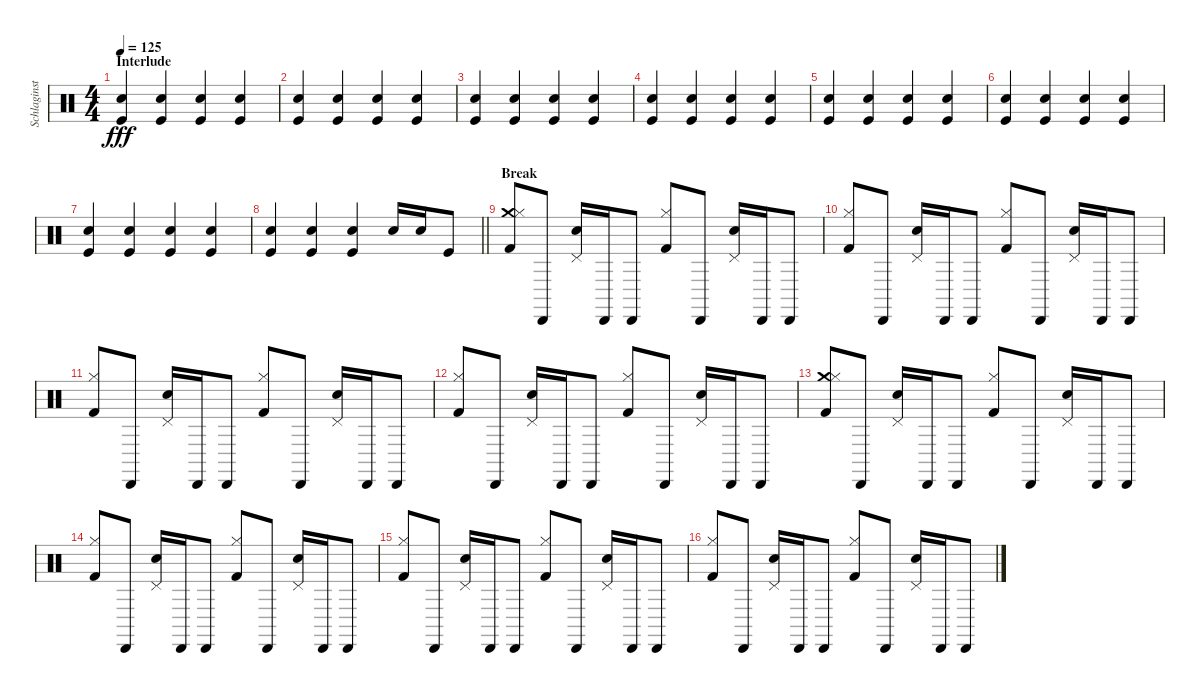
\track ("Schlaginstrumente - Auswahl" "Schlaginst") {instrument percussion}
\staff {score}
\articulation defaults
\ts (4 4)
\section ("" "Interlude")
\tempo 125
\clef neutral
\ks c
("Hand Clap (hit)" "Kick (hit)").4{dy fff} ("Hand Clap (hit)" "Kick (hit)").4 ("Hand Clap (hit)" "Kick (hit)").4 ("Hand Clap (hit)" "Kick (hit)").4 |
("Hand Clap (hit)" "Kick (hit)").4 ("Hand Clap (hit)" "Kick (hit)").4 ("Hand Clap (hit)" "Kick (hit)").4 ("Hand Clap (hit)" "Kick (hit)").4 |
("Hand Clap (hit)" "Kick (hit)").4 ("Hand Clap (hit)" "Kick (hit)").4 ("Hand Clap (hit)" "Kick (hit)").4 ("Hand Clap (hit)" "Kick (hit)").4 |
("Hand Clap (hit)" "Kick (hit)").4 ("Hand Clap (hit)" "Kick (hit)").4 ("Hand Clap (hit)" "Kick (hit)").4 ("Hand Clap (hit)" "Kick (hit)").4 |
("Hand Clap (hit)" "Kick (hit)").4 ("Hand Clap (hit)" "Kick (hit)").4 ("Hand Clap (hit)" "Kick (hit)").4 ("Hand Clap (hit)" "Kick (hit)").4 |
("Hand Clap (hit)" "Kick (hit)").4 ("Hand Clap (hit)" "Kick (hit)").4 ("Hand Clap (hit)" "Kick (hit)").4 ("Hand Clap (hit)" "Kick (hit)").4 |
("Hand Clap (hit)" "Kick (hit)").4 ("Hand Clap (hit)" "Kick (hit)").4 ("Hand Clap (hit)" "Kick (hit)").4 ("Hand Clap (hit)" "Kick (hit)").4 |
\barLineRight lightlight
("Hand Clap (hit)" "Kick (hit)").4 ("Hand Clap (hit)" "Kick (hit)").4 ("Hand Clap (hit)" "Kick (hit)").4 "Snare (hit) 2".16 "Snare (hit) 2".16 "Kick (hit)".8 |
\section ("" "Break")
("Crash medium (hit)" "Hi-Hat (closed)" "Kick (hit) 2").8 "Cabasa (hit)".8 ("Pedal Hi-Hat (hit)" "Hand Clap (hit)").16 "Cabasa (hit)".16 "Cabasa (hit)".8 ("Hi-Hat (closed)" "Kick (hit) 2").8 "Cabasa (hit)".8 ("Pedal Hi-Hat (hit)" "Hand Clap (hit)").16 "Cabasa (hit)".16 "Cabasa (hit)".8 |
("Hi-Hat (closed)" "Kick (hit) 2").8 "Cabasa (hit)".8 ("Pedal Hi-Hat (hit)" "Hand Clap (hit)").16 "Cabasa (hit)".16 "Cabasa (hit)".8 ("Hi-Hat (closed)" "Kick (hit) 2").8 "Cabasa (hit)".8 ("Pedal Hi-Hat (hit)" "Hand Clap (hit)").16 "Cabasa (hit)".16 "Cabasa (hit)".8 |
("Hi-Hat (closed)" "Kick (hit) 2").8 "Cabasa (hit)".8 ("Pedal Hi-Hat (hit)" "Hand Clap (hit)").16 "Cabasa (hit)".16 "Cabasa (hit)".8 ("Hi-Hat (closed)" "Kick (hit) 2").8 "Cabasa (hit)".8 ("Pedal Hi-Hat (hit)" "Hand Clap (hit)").16 "Cabasa (hit)".16 "Cabasa (hit)".8 |
("Hi-Hat (closed)" "Kick (hit) 2").8 "Cabasa (hit)".8 ("Pedal Hi-Hat (hit)" "Hand Clap (hit)").16 "Cabasa (hit)".16 "Cabasa (hit)".8 ("Hi-Hat (closed)" "Kick (hit) 2").8 "Cabasa (hit)".8 ("Pedal Hi-Hat (hit)" "Hand Clap (hit)").16 "Cabasa (hit)".16 "Cabasa (hit)".8 |
("Crash medium (hit)" "Hi-Hat (closed)" "Kick (hit) 2").8 "Cabasa (hit)".8 ("Pedal Hi-Hat (hit)" "Hand Clap (hit)").16 "Cabasa (hit)".16 "Cabasa (hit)".8 ("Hi-Hat (closed)" "Kick (hit) 2").8 "Cabasa (hit)".8 ("Pedal Hi-Hat (hit)" "Hand Clap (hit)").16 "Cabasa (hit)".16 "Cabasa (hit)".8 |
("Hi-Hat (closed)" "Kick (hit) 2").8 "Cabasa (hit)".8 ("Pedal Hi-Hat (hit)" "Hand Clap (hit)").16 "Cabasa (hit)".16 "Cabasa (hit)".8 ("Hi-Hat (closed)" "Kick (hit) 2").8 "Cabasa (hit)".8 ("Pedal Hi-Hat (hit)" "Hand Clap (hit)").16 "Cabasa (hit)".16 "Cabasa (hit)".8 |
("Hi-Hat (closed)" "Kick (hit) 2").8 "Cabasa (hit)".8 ("Pedal Hi-Hat (hit)" "Hand Clap (hit)").16 "Cabasa (hit)".16 "Cabasa (hit)".8 ("Hi-Hat (closed)" "Kick (hit) 2").8 "Cabasa (hit)".8 ("Pedal Hi-Hat (hit)" "Hand Clap (hit)").16 "Cabasa (hit)".16 "Cabasa (hit)".8 |
("Hi-Hat (closed)" "Kick (hit) 2").8 "Cabasa (hit)".8 ("Pedal Hi-Hat (hit)" "Hand Clap (hit)").16 "Cabasa (hit)".16 "Cabasa (hit)".8 ("Hi-Hat (closed)" "Kick (hit) 2").8 "Cabasa (hit)".8 ("Pedal Hi-Hat (hit)" "Hand Clap (hit)").16 "Cabasa (hit)".16 "Cabasa (hit)".8
